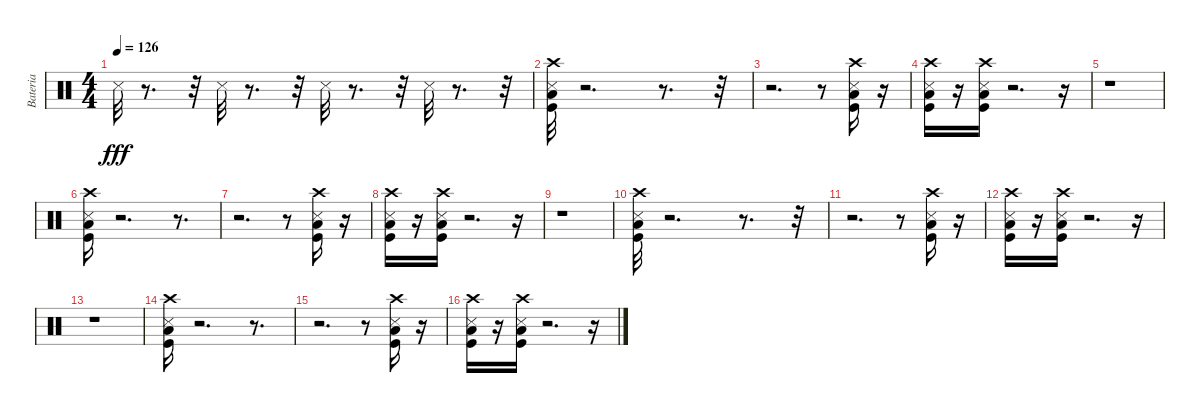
\track ("Bateria" "Bateria") {instrument percussion}
\staff {score}
\articulation defaults
\ts (4 4)
\tempo 126
\clef neutral
\ks c "Snare (side stick) 3".32{dy fff}
r.8{d} r.32 "Snare (side stick) 3".32 r.8{d} r.32 "Snare (side stick) 3".32 r.8{d} r.32 "Snare (side stick) 3".32 r.8{d} r.32 |
("Low Floor Tom (hit)" "Crash high (hit)" "Kick (hit)" "Metronome (hit)").32 r.2{d} r.8{d} r.32 |
r.2{d} r.8 ("Crash high (hit)" "Low Floor Tom (hit)" "Kick (hit)" "Metronome (hit)").16 r.16 |
("Low Floor Tom (hit)" "Crash high (hit)" "Kick (hit)" "Metronome (hit)").16 r.16 ("Crash high (hit)" "Low Floor Tom (hit)" "Kick (hit)" "Metronome (hit)").16 r.2{d} r.16 |
r.1 |
("Crash high (hit)" "Low Floor Tom (hit)" "Metronome (hit)" "Kick (hit)").16 r.2{d} r.8{d} |
r.2{d} r.8 ("Crash high (hit)" "Low Floor Tom (hit)" "Kick (hit)" "Metronome (hit)").16 r.16 |
("Crash high (hit)" "Low Floor Tom (hit)" "Kick (hit)" "Metronome (hit)").16 r.16 ("Crash high (hit)" "Low Floor Tom (hit)" "Kick (hit)" "Metronome (hit)").16 r.2{d} r.16 |
r.1 |
("Low Floor Tom (hit)" "Crash high (hit)" "Kick (hit)" "Metronome (hit)").32 r.2{d} r.8{d} r.32 |
r.2{d} r.8 ("Crash high (hit)" "Low Floor Tom (hit)" "Kick (hit)" "Metronome (hit)").16 r.16 |
("Low Floor Tom (hit)" "Crash high (hit)" "Kick (hit)" "Metronome (hit)").16 r.16 ("Crash high (hit)" "Low Floor Tom (hit)" "Kick (hit)" "Metronome (hit)").16 r.2{d} r.16 |
r.1 |
("Crash high (hit)" "Low Floor Tom (hit)" "Metronome (hit)" "Kick (hit)").16 r.2{d} r.8{d} |
r.2{d} r.8 ("Crash high (hit)" "Low Floor Tom (hit)" "Kick (hit)" "Metronome (hit)").16 r.16 |
("Crash high (hit)" "Low Floor Tom (hit)" "Kick (hit)" "Metronome (hit)").16 r.16 ("Crash high (hit)" "Low Floor Tom (hit)" "Kick (hit)" "Metronome (hit)").16 r.2{d} r.16
